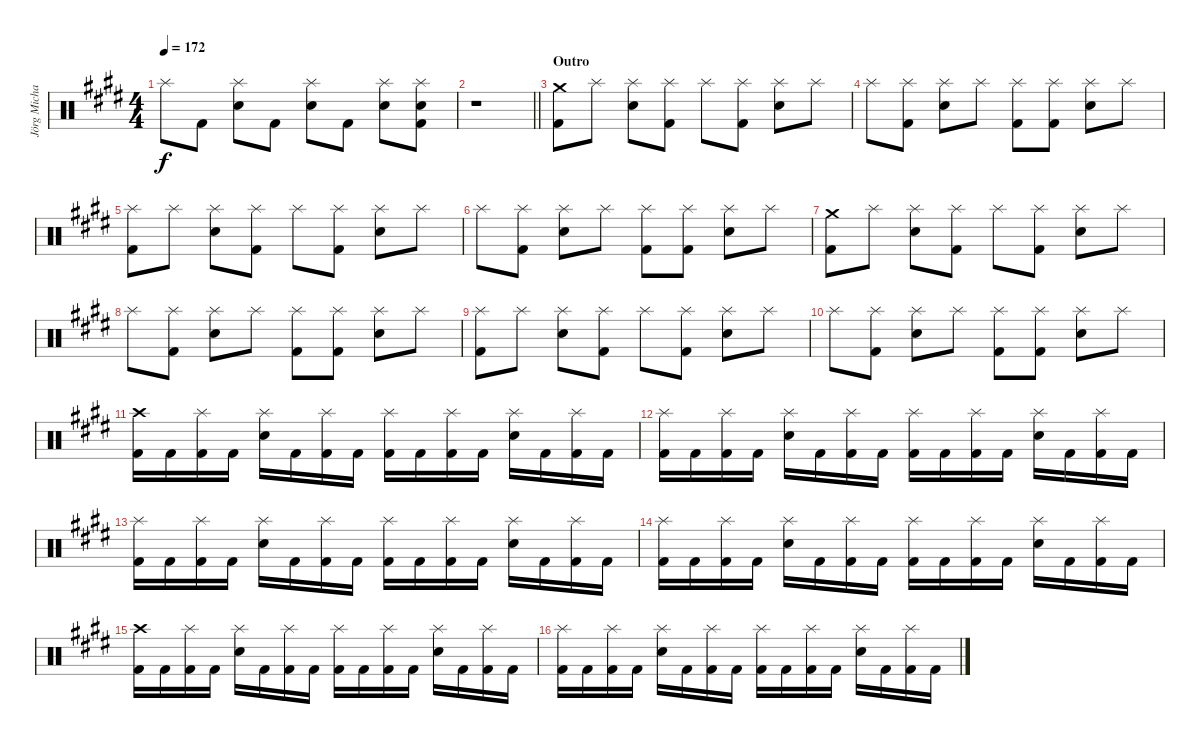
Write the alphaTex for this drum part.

\track ("Jörg Michael" "Jörg Micha") {instrument percussion}
\staff {score}
\articulation defaults
\ts (4 4)
\tempo 172
\clef neutral
\ks c#minor "Splash (hit)".8{dy f} "Kick (hit) 2".8
("Splash (hit)" "Snare (hit) 2").8 "Kick (hit) 2".8 ("Splash (hit)" "Snare (hit) 2").8 "Kick (hit) 2".8 ("Splash (hit)" "Snare (hit) 2").8 ("Splash (hit)" "Snare (hit) 2" "Kick (hit) 2").8 |
\barLineRight lightlight
r.1 |
\section ("" "Outro")
("Crash medium (hit)" "Kick (hit) 2").8 "Splash (hit)".8 ("Splash (hit)" "Snare (hit) 2").8 ("Splash (hit)" "Kick (hit) 2").8 "Splash (hit)".8 ("Splash (hit)" "Kick (hit) 2").8 ("Splash (hit)" "Snare (hit) 2").8 "Splash (hit)".8 |
"Splash (hit)".8 ("Splash (hit)" "Kick (hit) 2").8 ("Splash (hit)" "Snare (hit) 2").8 "Splash (hit)".8 ("Splash (hit)" "Kick (hit) 2").8 ("Splash (hit)" "Kick (hit) 2").8 ("Splash (hit)" "Snare (hit) 2").8 "Splash (hit)".8 |
("Splash (hit)" "Kick (hit) 2").8 "Splash (hit)".8 ("Splash (hit)" "Snare (hit) 2").8 ("Splash (hit)" "Kick (hit) 2").8 "Splash (hit)".8 ("Splash (hit)" "Kick (hit) 2").8 ("Splash (hit)" "Snare (hit) 2").8 "Splash (hit)".8 |
"Splash (hit)".8 ("Splash (hit)" "Kick (hit) 2").8 ("Splash (hit)" "Snare (hit) 2").8 "Splash (hit)".8 ("Splash (hit)" "Kick (hit) 2").8 ("Splash (hit)" "Kick (hit) 2").8 ("Splash (hit)" "Snare (hit) 2").8 "Splash (hit)".8 |
("Crash medium (hit)" "Kick (hit) 2").8 "Splash (hit)".8 ("Splash (hit)" "Snare (hit) 2").8 ("Splash (hit)" "Kick (hit) 2").8 "Splash (hit)".8 ("Splash (hit)" "Kick (hit) 2").8 ("Splash (hit)" "Snare (hit) 2").8 "Splash (hit)".8 |
"Splash (hit)".8 ("Splash (hit)" "Kick (hit) 2").8 ("Splash (hit)" "Snare (hit) 2").8 "Splash (hit)".8 ("Splash (hit)" "Kick (hit) 2").8 ("Splash (hit)" "Kick (hit) 2").8 ("Splash (hit)" "Snare (hit) 2").8 "Splash (hit)".8 |
("Splash (hit)" "Kick (hit) 2").8 "Splash (hit)".8 ("Splash (hit)" "Snare (hit) 2").8 ("Splash (hit)" "Kick (hit) 2").8 "Splash (hit)".8 ("Splash (hit)" "Kick (hit) 2").8 ("Splash (hit)" "Snare (hit) 2").8 "Splash (hit)".8 |
"Splash (hit)".8 ("Splash (hit)" "Kick (hit) 2").8 ("Splash (hit)" "Snare (hit) 2").8 "Splash (hit)".8 ("Splash (hit)" "Kick (hit) 2").8 ("Splash (hit)" "Kick (hit) 2").8 ("Splash (hit)" "Snare (hit) 2").8 "Splash (hit)".8 |
("Crash high (hit)" "Kick (hit) 2").16 "Kick (hit) 2".16 ("Splash (hit)" "Kick (hit) 2").16 "Kick (hit) 2".16 ("Splash (hit)" "Snare (hit) 2").16 "Kick (hit) 2".16 ("Splash (hit)" "Kick (hit) 2").16 "Kick (hit) 2".16 ("Splash (hit)" "Kick (hit) 2").16 "Kick (hit) 2".16 ("Splash (hit)" "Kick (hit) 2").16 "Kick (hit) 2".16 ("Splash (hit)" "Snare (hit) 2").16 "Kick (hit) 2".16 ("Splash (hit)" "Kick (hit) 2").16 "Kick (hit) 2".16 |
("Splash (hit)" "Kick (hit) 2").16 "Kick (hit) 2".16 ("Splash (hit)" "Kick (hit) 2").16 "Kick (hit) 2".16 ("Splash (hit)" "Snare (hit) 2").16 "Kick (hit) 2".16 ("Splash (hit)" "Kick (hit) 2").16 "Kick (hit) 2".16 ("Splash (hit)" "Kick (hit) 2").16 "Kick (hit) 2".16 ("Splash (hit)" "Kick (hit) 2").16 "Kick (hit) 2".16 ("Splash (hit)" "Snare (hit) 2").16 "Kick (hit) 2".16 ("Splash (hit)" "Kick (hit) 2").16 "Kick (hit) 2".16 |
("Splash (hit)" "Kick (hit) 2").16 "Kick (hit) 2".16 ("Splash (hit)" "Kick (hit) 2").16 "Kick (hit) 2".16 ("Splash (hit)" "Snare (hit) 2").16 "Kick (hit) 2".16 ("Splash (hit)" "Kick (hit) 2").16 "Kick (hit) 2".16 ("Splash (hit)" "Kick (hit) 2").16 "Kick (hit) 2".16 ("Splash (hit)" "Kick (hit) 2").16 "Kick (hit) 2".16 ("Splash (hit)" "Snare (hit) 2").16 "Kick (hit) 2".16 ("Splash (hit)" "Kick (hit) 2").16 "Kick (hit) 2".16 |
("Splash (hit)" "Kick (hit) 2").16 "Kick (hit) 2".16 ("Splash (hit)" "Kick (hit) 2").16 "Kick (hit) 2".16 ("Splash (hit)" "Snare (hit) 2").16 "Kick (hit) 2".16 ("Splash (hit)" "Kick (hit) 2").16 "Kick (hit) 2".16 ("Splash (hit)" "Kick (hit) 2").16 "Kick (hit) 2".16 ("Splash (hit)" "Kick (hit) 2").16 "Kick (hit) 2".16 ("Splash (hit)" "Snare (hit) 2").16 "Kick (hit) 2".16 ("Splash (hit)" "Kick (hit) 2").16 "Kick (hit) 2".16 |
("Crash high (hit)" "Kick (hit) 2").16 "Kick (hit) 2".16 ("Splash (hit)" "Kick (hit) 2").16 "Kick (hit) 2".16 ("Splash (hit)" "Snare (hit) 2").16 "Kick (hit) 2".16 ("Splash (hit)" "Kick (hit) 2").16 "Kick (hit) 2".16 ("Splash (hit)" "Kick (hit) 2").16 "Kick (hit) 2".16 ("Splash (hit)" "Kick (hit) 2").16 "Kick (hit) 2".16 ("Splash (hit)" "Snare (hit) 2").16 "Kick (hit) 2".16 ("Splash (hit)" "Kick (hit) 2").16 "Kick (hit) 2".16 |
("Splash (hit)" "Kick (hit) 2").16 "Kick (hit) 2".16 ("Splash (hit)" "Kick (hit) 2").16 "Kick (hit) 2".16 ("Splash (hit)" "Snare (hit) 2").16 "Kick (hit) 2".16 ("Splash (hit)" "Kick (hit) 2").16 "Kick (hit) 2".16 ("Splash (hit)" "Kick (hit) 2").16 "Kick (hit) 2".16 ("Splash (hit)" "Kick (hit) 2").16 "Kick (hit) 2".16 ("Splash (hit)" "Snare (hit) 2").16 "Kick (hit) 2".16 ("Splash (hit)" "Kick (hit) 2").16 "Kick (hit) 2".16
